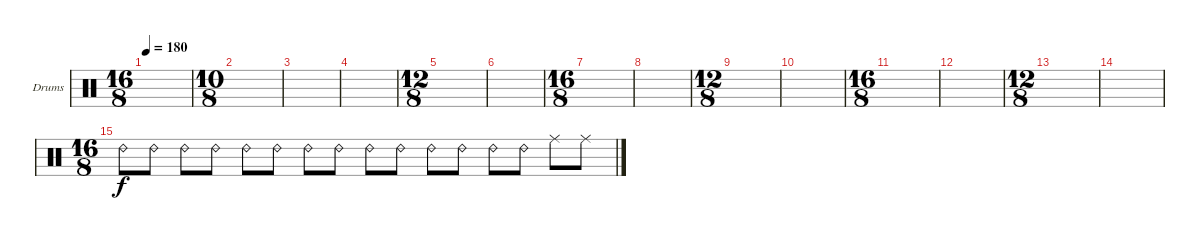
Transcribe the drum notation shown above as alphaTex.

\defaultSystemsLayout 4
\bracketExtendMode groupsimilarinstruments
\firstSystemTrackNameOrientation horizontal
\otherSystemsTrackNameOrientation horizontal
\track ("Ride" "Drums") {instrument percussion}
\staff {score}
\articulation defaults
\ts (16 8)
\tempo 180
\clef neutral
\ks c
|
\ts (10 8)
|
|
|
\ts (12 8)
|
|
\ts (16 8)
|
|
\ts (12 8)
|
|
\ts (16 8)
|
|
\ts (12 8)
|
|
\ts (16 8)
"Ride (bell) 2".8 "Ride (bell) 2".8 "Ride (bell) 2".8 "Ride (bell) 2".8 "Ride (bell) 2".8 "Ride (bell) 2".8 "Ride (bell) 2".8 "Ride (bell) 2".8 "Ride (bell) 2".8 "Ride (bell) 2".8 "Ride (bell) 2".8 "Ride (bell) 2".8 "Ride (bell) 2".8 "Ride (bell) 2".8 "Ride (middle)".8 "Ride (middle)".8
